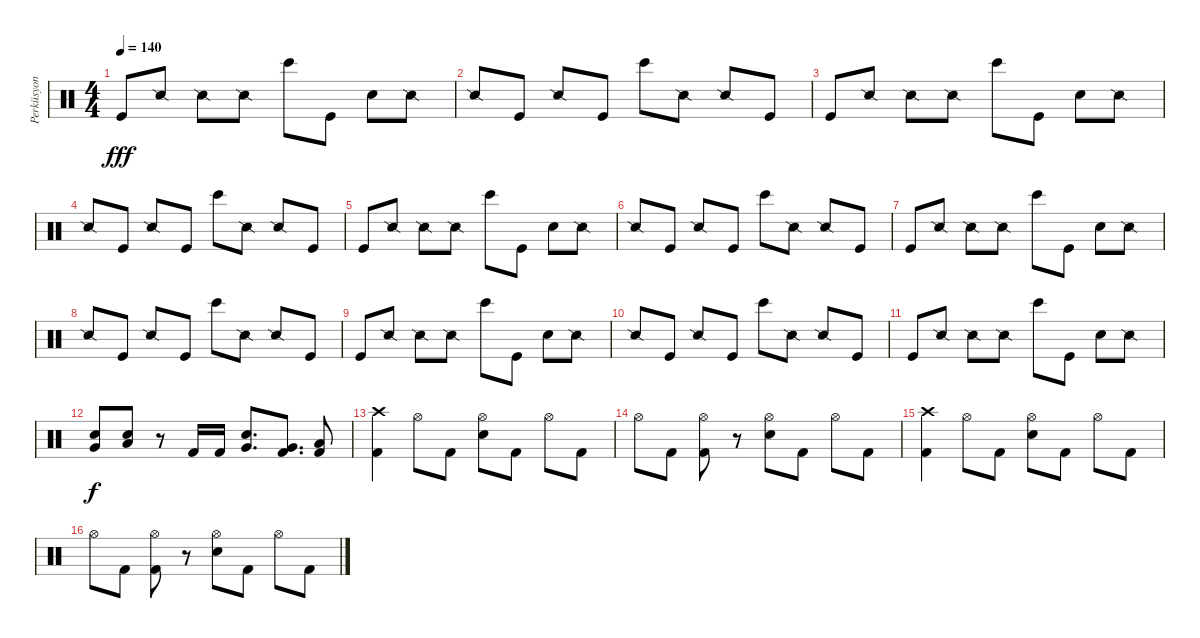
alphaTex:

\track ("Perküsyon" "Perküsyon") {instrument percussion}
\staff {score}
\articulation defaults
\ts (4 4)
\tempo 140
\clef neutral
\ks c "Kick (hit)".8{dy fff} "Snare (side stick) 2".8 "Snare (side stick) 2".8 "Snare (side stick) 2".8 "Bongo High (hit)".8 "Kick (hit)".8 "Metronome (bell)".8 "Snare (side stick) 2".8
|
"Snare (side stick) 2".8 "Kick (hit)".8 "Snare (side stick) 2".8 "Kick (hit)".8 "Bongo High (hit)".8 "Snare (side stick) 2".8 "Snare (side stick) 2".8 "Kick (hit)".8 |
"Kick (hit)".8 "Snare (side stick) 2".8 "Snare (side stick) 2".8 "Snare (side stick) 2".8 "Bongo High (hit)".8 "Kick (hit)".8 "Metronome (bell)".8 "Snare (side stick) 2".8 |
"Snare (side stick) 2".8 "Kick (hit)".8 "Snare (side stick) 2".8 "Kick (hit)".8 "Bongo High (hit)".8 "Snare (side stick) 2".8 "Snare (side stick) 2".8 "Kick (hit)".8 |
"Kick (hit)".8 "Snare (side stick) 2".8 "Snare (side stick) 2".8 "Snare (side stick) 2".8 "Bongo High (hit)".8 "Kick (hit)".8 "Metronome (bell)".8 "Snare (side stick) 2".8 |
"Snare (side stick) 2".8 "Kick (hit)".8 "Snare (side stick) 2".8 "Kick (hit)".8 "Bongo High (hit)".8 "Snare (side stick) 2".8 "Snare (side stick) 2".8 "Kick (hit)".8 |
"Kick (hit)".8 "Snare (side stick) 2".8 "Snare (side stick) 2".8 "Snare (side stick) 2".8 "Bongo High (hit)".8 "Kick (hit)".8 "Metronome (bell)".8 "Snare (side stick) 2".8 |
"Snare (side stick) 2".8 "Kick (hit)".8 "Snare (side stick) 2".8 "Kick (hit)".8 "Bongo High (hit)".8 "Snare (side stick) 2".8 "Snare (side stick) 2".8 "Kick (hit)".8 |
"Kick (hit)".8 "Snare (side stick) 2".8 "Snare (side stick) 2".8 "Snare (side stick) 2".8 "Bongo High (hit)".8 "Kick (hit)".8 "Metronome (bell)".8 "Snare (side stick) 2".8 |
"Snare (side stick) 2".8 "Kick (hit)".8 "Snare (side stick) 2".8 "Kick (hit)".8 "Bongo High (hit)".8 "Snare (side stick) 2".8 "Snare (side stick) 2".8 "Kick (hit)".8 |
"Kick (hit)".8 "Snare (side stick) 2".8 "Snare (side stick) 2".8 "Snare (side stick) 2".8 "Bongo High (hit)".8 "Kick (hit)".8 "Metronome (bell)".8 "Snare (side stick) 2".8 |
("Very Low Tom (hit)" "Electric Snare (hit)").8{dy f} ("Low Floor Tom (hit)" "Electric Snare (hit)").8 r.8 "Kick (hit) 2".16 "Kick (hit) 2".16 ("Very Low Tom (hit)" "Electric Snare (hit)").8{d} ("Very Low Tom (hit)" "Kick (hit) 2").8{d} ("Low Floor Tom (hit)" "Kick (hit) 2").8 |
("Crash high (hit)" "Kick (hit) 2").4 "Hi-Hat (open)".8 "Kick (hit) 2".8 ("Hi-Hat (open)" "Electric Snare (hit)").8 "Kick (hit) 2".8 "Hi-Hat (open)".8 "Kick (hit) 2".8 |
"Hi-Hat (open)".8 "Kick (hit) 2".8 ("Hi-Hat (open)" "Kick (hit) 2").8 r.8 ("Hi-Hat (open)" "Electric Snare (hit)").8 "Kick (hit) 2".8 "Hi-Hat (open)".8 "Kick (hit) 2".8 |
("Crash high (hit)" "Kick (hit) 2").4 "Hi-Hat (open)".8 "Kick (hit) 2".8 ("Hi-Hat (open)" "Electric Snare (hit)").8 "Kick (hit) 2".8 "Hi-Hat (open)".8 "Kick (hit) 2".8 |
"Hi-Hat (open)".8 "Kick (hit) 2".8 ("Hi-Hat (open)" "Kick (hit) 2").8 r.8 ("Hi-Hat (open)" "Electric Snare (hit)").8 "Kick (hit) 2".8 "Hi-Hat (open)".8 "Kick (hit) 2".8
